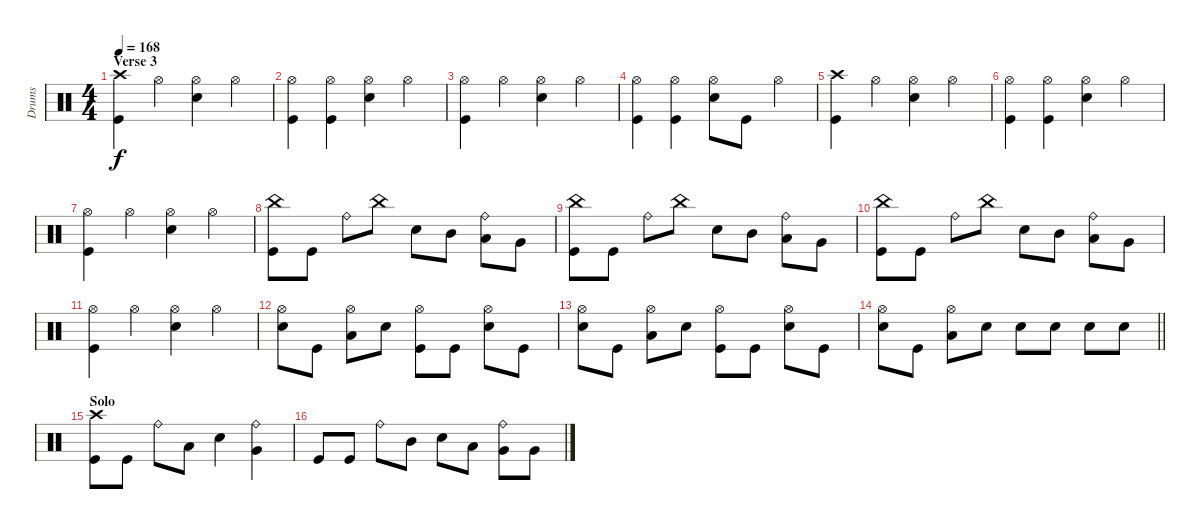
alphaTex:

\track ("Drums" "Drums") {instrument percussion}
\staff {score}
\articulation defaults
\ts (4 4)
\section ("" "Verse 3")
\tempo 168
\clef neutral
\ks c
("Crash high (hit)" "Kick (hit)").4{dy f} "Hi-Hat (open)".4 ("Hi-Hat (open)" "Electric Snare (hit)").4 "Hi-Hat (open)".4 |
("Hi-Hat (open)" "Kick (hit)").4 ("Hi-Hat (open)" "Kick (hit)").4 ("Hi-Hat (open)" "Electric Snare (hit)").4 "Hi-Hat (open)".4 |
("Hi-Hat (open)" "Kick (hit)").4 "Hi-Hat (open)".4 ("Hi-Hat (open)" "Electric Snare (hit)").4 "Hi-Hat (open)".4 |
("Hi-Hat (open)" "Kick (hit)").4 ("Hi-Hat (open)" "Kick (hit)").4 ("Hi-Hat (open)" "Electric Snare (hit)").8 "Kick (hit)".8 "Hi-Hat (open)".4 |
("Crash high (hit)" "Kick (hit)").4 "Hi-Hat (open)".4 ("Hi-Hat (open)" "Electric Snare (hit)").4 "Hi-Hat (open)".4 |
("Hi-Hat (open)" "Kick (hit)").4 ("Hi-Hat (open)" "Kick (hit)").4 ("Hi-Hat (open)" "Electric Snare (hit)").4 "Hi-Hat (open)".4 |
("Hi-Hat (open)" "Kick (hit)").4 "Hi-Hat (open)".4 ("Hi-Hat (open)" "Electric Snare (hit)").4 "Hi-Hat (open)".4 |
("China (hit)" "Kick (hit)").8 "Kick (hit)".8 "Ride (bell)".8 "China (hit)".8 "Electric Snare (hit)".8 "Mid Tom (hit)".8 ("Ride (bell)" "Low Tom (hit)").8 "Very Low Tom (hit)".8 |
("China (hit)" "Kick (hit)").8 "Kick (hit)".8 "Ride (bell)".8 "China (hit)".8 "Electric Snare (hit)".8 "Mid Tom (hit)".8 ("Ride (bell)" "Low Tom (hit)").8 "Very Low Tom (hit)".8 |
("China (hit)" "Kick (hit)").8 "Kick (hit)".8 "Ride (bell)".8 "China (hit)".8 "Electric Snare (hit)".8 "Mid Tom (hit)".8 ("Ride (bell)" "Low Tom (hit)").8 "Very Low Tom (hit)".8 |
("Hi-Hat (open)" "Kick (hit)").4 "Hi-Hat (open)".4 ("Hi-Hat (open)" "Electric Snare (hit)").4 "Hi-Hat (open)".4 |
("Hi-Hat (open)" "Electric Snare (hit)").8 "Kick (hit)".8 ("Hi-Hat (open)" "Low Tom (hit)").8 "Electric Snare (hit)".8 ("Hi-Hat (open)" "Kick (hit)").8 "Kick (hit)".8 ("Hi-Hat (open)" "Electric Snare (hit)").8 "Kick (hit)".8 |
("Hi-Hat (open)" "Electric Snare (hit)").8 "Kick (hit)".8 ("Hi-Hat (open)" "Low Tom (hit)").8 "Electric Snare (hit)".8 ("Hi-Hat (open)" "Kick (hit)").8 "Kick (hit)".8 ("Hi-Hat (open)" "Electric Snare (hit)").8 "Kick (hit)".8 |
\barLineRight lightlight
("Hi-Hat (open)" "Electric Snare (hit)").8 "Kick (hit)".8 ("Hi-Hat (open)" "Low Tom (hit)").8 "Electric Snare (hit)".8 "Electric Snare (hit)".8 "Electric Snare (hit)".8 "Electric Snare (hit)".8 "Electric Snare (hit)".8 |
\section ("" "Solo")
("Crash high (hit)" "Kick (hit)").8 "Kick (hit)".8 "Ride (bell)".8 "Low Tom (hit)".8 "Electric Snare (hit)".4 ("Ride (bell)" "Very Low Tom (hit)").4 |
"Kick (hit)".8 "Kick (hit)".8 "Ride (bell)".8 "Mid Tom (hit)".8 "Electric Snare (hit)".8 "Low Tom (hit)".8 ("Ride (bell)" "Very Low Tom (hit)").8 "Very Low Tom (hit)".8
